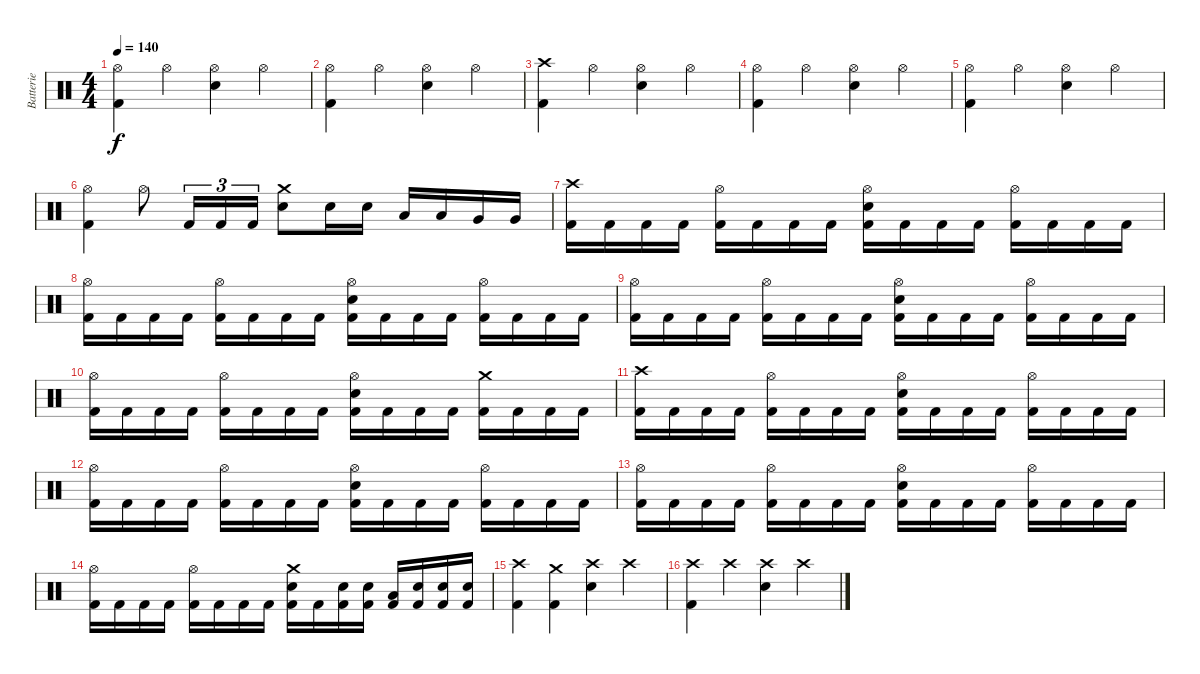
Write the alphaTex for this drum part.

\track ("Batterie" "Batterie") {instrument percussion}
\staff {score}
\articulation defaults
\ts (4 4)
\tempo 140
\clef neutral
\ks c
("Hi-Hat (open)" "Kick (hit) 2").4{dy f} "Hi-Hat (open)".4 ("Hi-Hat (open)" "Electric Snare (hit)").4 "Hi-Hat (open)".4 |
("Hi-Hat (open)" "Kick (hit) 2").4 "Hi-Hat (open)".4 ("Hi-Hat (open)" "Electric Snare (hit)").4 "Hi-Hat (open)".4 |
("Crash high (hit)" "Kick (hit) 2").4 "Hi-Hat (open)".4 ("Hi-Hat (open)" "Electric Snare (hit)").4 "Hi-Hat (open)".4 |
("Hi-Hat (open)" "Kick (hit) 2").4 "Hi-Hat (open)".4 ("Hi-Hat (open)" "Electric Snare (hit)").4 "Hi-Hat (open)".4 |
("Hi-Hat (open)" "Kick (hit) 2").4 "Hi-Hat (open)".4 ("Hi-Hat (open)" "Electric Snare (hit)").4 "Hi-Hat (open)".4 |
("Hi-Hat (open)" "Kick (hit) 2").4 "Hi-Hat (open)".8 "Kick (hit) 2".16{tu (3 2)} "Kick (hit) 2".16{tu (3 2)} "Kick (hit) 2".16{tu (3 2)} ("Crash medium (hit)" "Electric Snare (hit)").8 "Electric Snare (hit)".16 "Electric Snare (hit)".16 "Low Tom (hit)".16 "Low Tom (hit)".16 "Very Low Tom (hit)".16 "Very Low Tom (hit)".16 |
("Crash high (hit)" "Kick (hit) 2").16 "Kick (hit) 2".16 "Kick (hit) 2".16 "Kick (hit) 2".16 ("Hi-Hat (open)" "Kick (hit) 2").16 "Kick (hit) 2".16 "Kick (hit) 2".16 "Kick (hit) 2".16 ("Hi-Hat (open)" "Electric Snare (hit)" "Kick (hit) 2").16 "Kick (hit) 2".16 "Kick (hit) 2".16 "Kick (hit) 2".16 ("Hi-Hat (open)" "Kick (hit) 2").16 "Kick (hit) 2".16 "Kick (hit) 2".16 "Kick (hit) 2".16 |
("Hi-Hat (open)" "Kick (hit) 2").16 "Kick (hit) 2".16 "Kick (hit) 2".16 "Kick (hit) 2".16 ("Hi-Hat (open)" "Kick (hit) 2").16 "Kick (hit) 2".16 "Kick (hit) 2".16 "Kick (hit) 2".16 ("Hi-Hat (open)" "Electric Snare (hit)" "Kick (hit) 2").16 "Kick (hit) 2".16 "Kick (hit) 2".16 "Kick (hit) 2".16 ("Hi-Hat (open)" "Kick (hit) 2").16 "Kick (hit) 2".16 "Kick (hit) 2".16 "Kick (hit) 2".16 |
("Hi-Hat (open)" "Kick (hit) 2").16 "Kick (hit) 2".16 "Kick (hit) 2".16 "Kick (hit) 2".16 ("Hi-Hat (open)" "Kick (hit) 2").16 "Kick (hit) 2".16 "Kick (hit) 2".16 "Kick (hit) 2".16 ("Hi-Hat (open)" "Electric Snare (hit)" "Kick (hit) 2").16 "Kick (hit) 2".16 "Kick (hit) 2".16 "Kick (hit) 2".16 ("Hi-Hat (open)" "Kick (hit) 2").16 "Kick (hit) 2".16 "Kick (hit) 2".16 "Kick (hit) 2".16 |
("Hi-Hat (open)" "Kick (hit) 2").16 "Kick (hit) 2".16 "Kick (hit) 2".16 "Kick (hit) 2".16 ("Hi-Hat (open)" "Kick (hit) 2").16 "Kick (hit) 2".16 "Kick (hit) 2".16 "Kick (hit) 2".16 ("Hi-Hat (open)" "Electric Snare (hit)" "Kick (hit) 2").16 "Kick (hit) 2".16 "Kick (hit) 2".16 "Kick (hit) 2".16 ("Crash medium (hit)" "Kick (hit) 2").16 "Kick (hit) 2".16 "Kick (hit) 2".16 "Kick (hit) 2".16 |
("Crash high (hit)" "Kick (hit) 2").16 "Kick (hit) 2".16 "Kick (hit) 2".16 "Kick (hit) 2".16 ("Hi-Hat (open)" "Kick (hit) 2").16 "Kick (hit) 2".16 "Kick (hit) 2".16 "Kick (hit) 2".16 ("Hi-Hat (open)" "Electric Snare (hit)" "Kick (hit) 2").16 "Kick (hit) 2".16 "Kick (hit) 2".16 "Kick (hit) 2".16 ("Hi-Hat (open)" "Kick (hit) 2").16 "Kick (hit) 2".16 "Kick (hit) 2".16 "Kick (hit) 2".16 |
("Hi-Hat (open)" "Kick (hit) 2").16 "Kick (hit) 2".16 "Kick (hit) 2".16 "Kick (hit) 2".16 ("Hi-Hat (open)" "Kick (hit) 2").16 "Kick (hit) 2".16 "Kick (hit) 2".16 "Kick (hit) 2".16 ("Hi-Hat (open)" "Electric Snare (hit)" "Kick (hit) 2").16 "Kick (hit) 2".16 "Kick (hit) 2".16 "Kick (hit) 2".16 ("Hi-Hat (open)" "Kick (hit) 2").16 "Kick (hit) 2".16 "Kick (hit) 2".16 "Kick (hit) 2".16 |
("Hi-Hat (open)" "Kick (hit) 2").16 "Kick (hit) 2".16 "Kick (hit) 2".16 "Kick (hit) 2".16 ("Hi-Hat (open)" "Kick (hit) 2").16 "Kick (hit) 2".16 "Kick (hit) 2".16 "Kick (hit) 2".16 ("Hi-Hat (open)" "Electric Snare (hit)" "Kick (hit) 2").16 "Kick (hit) 2".16 "Kick (hit) 2".16 "Kick (hit) 2".16 ("Hi-Hat (open)" "Kick (hit) 2").16 "Kick (hit) 2".16 "Kick (hit) 2".16 "Kick (hit) 2".16 |
("Hi-Hat (open)" "Kick (hit) 2").16 "Kick (hit) 2".16 "Kick (hit) 2".16 "Kick (hit) 2".16 ("Hi-Hat (open)" "Kick (hit) 2").16 "Kick (hit) 2".16 "Kick (hit) 2".16 "Kick (hit) 2".16 ("Crash medium (hit)" "Electric Snare (hit)" "Kick (hit) 2").16 "Kick (hit) 2".16 ("Electric Snare (hit)" "Kick (hit) 2").16 ("Electric Snare (hit)" "Kick (hit) 2").16 ("Low Tom (hit)" "Kick (hit) 2").16 ("Electric Snare (hit)" "Kick (hit) 2").16 ("Electric Snare (hit)" "Kick (hit) 2").16 ("Electric Snare (hit)" "Kick (hit) 2").16 |
("Crash high (hit)" "Kick (hit) 2").4 ("Crash medium (hit)" "Kick (hit) 2").4 ("Crash high (hit)" "Electric Snare (hit)").4 "Crash high (hit)".4 |
("Crash high (hit)" "Kick (hit) 2").4 "Crash high (hit)".4 ("Crash high (hit)" "Electric Snare (hit)").4 "Crash high (hit)".4
